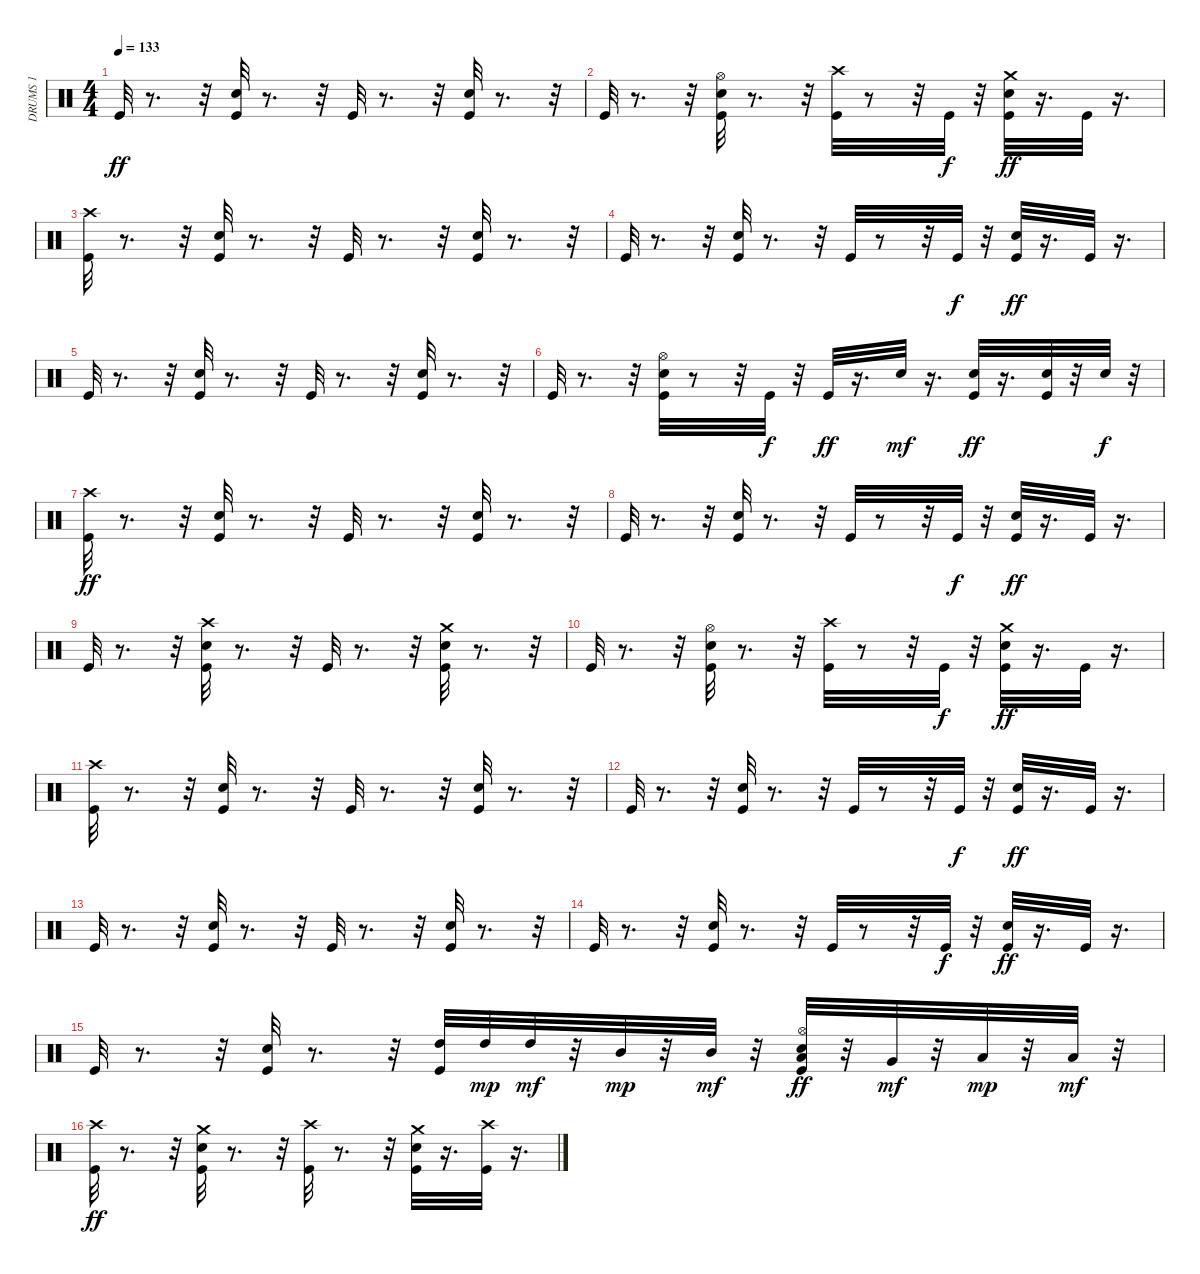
\track ("DRUMS 1                             " "DRUMS 1   ") {instrument percussion}
\staff {score}
\articulation defaults
\ts (4 4)
\tempo 133
\clef neutral
\ks c "Kick (hit)".32{dy ff}
r.8{d} r.32 ("Electric Snare (hit)" "Kick (hit)").32 r.8{d} r.32 "Kick (hit)".32 r.8{d} r.32 ("Electric Snare (hit)" "Kick (hit)").32 r.8{d} r.32 |
"Kick (hit)".32 r.8{d} r.32 ("Hi-Hat (open)" "Electric Snare (hit)" "Kick (hit)").32 r.8{d} r.32 ("Crash high (hit)" "Kick (hit)").32 r.8 r.32 "Kick (hit)".32{dy f} r.32 ("Crash medium (hit)" "Electric Snare (hit)" "Kick (hit)").32{dy ff} r.16{d} "Kick (hit)".32 r.16{d} |
("Crash high (hit)" "Kick (hit)").32 r.8{d} r.32 ("Electric Snare (hit)" "Kick (hit)").32 r.8{d} r.32 "Kick (hit)".32 r.8{d} r.32 ("Electric Snare (hit)" "Kick (hit)").32 r.8{d} r.32 |
"Kick (hit)".32 r.8{d} r.32 ("Electric Snare (hit)" "Kick (hit)").32 r.8{d} r.32 "Kick (hit)".32 r.8 r.32 "Kick (hit)".32{dy f} r.32 ("Electric Snare (hit)" "Kick (hit)").32{dy ff} r.16{d} "Kick (hit)".32 r.16{d} |
"Kick (hit)".32 r.8{d} r.32 ("Electric Snare (hit)" "Kick (hit)").32 r.8{d} r.32 "Kick (hit)".32 r.8{d} r.32 ("Electric Snare (hit)" "Kick (hit)").32 r.8{d} r.32 |
"Kick (hit)".32 r.8{d} r.32 ("Hi-Hat (open)" "Electric Snare (hit)" "Kick (hit)").32 r.8 r.32 "Kick (hit)".32{dy f} r.32 "Kick (hit)".32{dy ff} r.16{d} "Electric Snare (hit)".32{dy mf} r.16{d} ("Electric Snare (hit)" "Kick (hit)").32{dy ff} r.16{d} ("Electric Snare (hit)" "Kick (hit)").32 r.32 "Electric Snare (hit)".32{dy f} r.32 |
("Crash high (hit)" "Kick (hit)").32{dy ff} r.8{d} r.32 ("Electric Snare (hit)" "Kick (hit)").32 r.8{d} r.32 "Kick (hit)".32 r.8{d} r.32 ("Electric Snare (hit)" "Kick (hit)").32 r.8{d} r.32 |
"Kick (hit)".32 r.8{d} r.32 ("Electric Snare (hit)" "Kick (hit)").32 r.8{d} r.32 "Kick (hit)".32 r.8 r.32 "Kick (hit)".32{dy f} r.32 ("Electric Snare (hit)" "Kick (hit)").32{dy ff} r.16{d} "Kick (hit)".32 r.16{d} |
"Kick (hit)".32 r.8{d} r.32 ("Crash high (hit)" "Electric Snare (hit)" "Kick (hit)").32 r.8{d} r.32 "Kick (hit)".32 r.8{d} r.32 ("Crash medium (hit)" "Electric Snare (hit)" "Kick (hit)").32 r.8{d} r.32 |
"Kick (hit)".32 r.8{d} r.32 ("Hi-Hat (open)" "Electric Snare (hit)" "Kick (hit)").32 r.8{d} r.32 ("Crash high (hit)" "Kick (hit)").32 r.8 r.32 "Kick (hit)".32{dy f} r.32 ("Crash medium (hit)" "Electric Snare (hit)" "Kick (hit)").32{dy ff} r.16{d} "Kick (hit)".32 r.16{d} |
("Crash high (hit)" "Kick (hit)").32 r.8{d} r.32 ("Electric Snare (hit)" "Kick (hit)").32 r.8{d} r.32 "Kick (hit)".32 r.8{d} r.32 ("Electric Snare (hit)" "Kick (hit)").32 r.8{d} r.32 |
"Kick (hit)".32 r.8{d} r.32 ("Electric Snare (hit)" "Kick (hit)").32 r.8{d} r.32 "Kick (hit)".32 r.8 r.32 "Kick (hit)".32{dy f} r.32 ("Electric Snare (hit)" "Kick (hit)").32{dy ff} r.16{d} "Kick (hit)".32 r.16{d} |
"Kick (hit)".32 r.8{d} r.32 ("Electric Snare (hit)" "Kick (hit)").32 r.8{d} r.32 "Kick (hit)".32 r.8{d} r.32 ("Electric Snare (hit)" "Kick (hit)").32 r.8{d} r.32 |
"Kick (hit)".32 r.8{d} r.32 ("Electric Snare (hit)" "Kick (hit)").32 r.8{d} r.32 "Kick (hit)".32 r.8 r.32 "Kick (hit)".32{dy f} r.32 ("Electric Snare (hit)" "Kick (hit)").32{dy ff} r.16{d} "Kick (hit)".32 r.16{d} |
"Kick (hit)".32 r.8{d} r.32 ("Electric Snare (hit)" "Kick (hit)").32 r.8{d} r.32 ("High Tom (hit)" "Kick (hit)").32 "High Tom (hit)".32{dy mp} "High Tom (hit)".32{dy mf} r.32 "Mid Tom (hit)".32{dy mp} r.32 "Mid Tom (hit)".32{dy mf} r.32 ("Low Tom (hit)" "Hi-Hat (open)" "Electric Snare (hit)" "Kick (hit)").32{dy ff} r.32 "Very Low Tom (hit)".32{dy mf} r.32 "Low Floor Tom (hit)".32{dy mp} r.32 "Low Floor Tom (hit)".32{dy mf} r.32 |
("Crash high (hit)" "Kick (hit)").32{dy ff} r.8{d} r.32 ("Electric Snare (hit)" "Crash medium (hit)" "Kick (hit)").32 r.8{d} r.32 ("Crash high (hit)" "Kick (hit)").32 r.8{d} r.32 ("Electric Snare (hit)" "Crash medium (hit)" "Kick (hit)").32 r.16{d} ("Crash high (hit)" "Kick (hit)").32 r.16{d}
